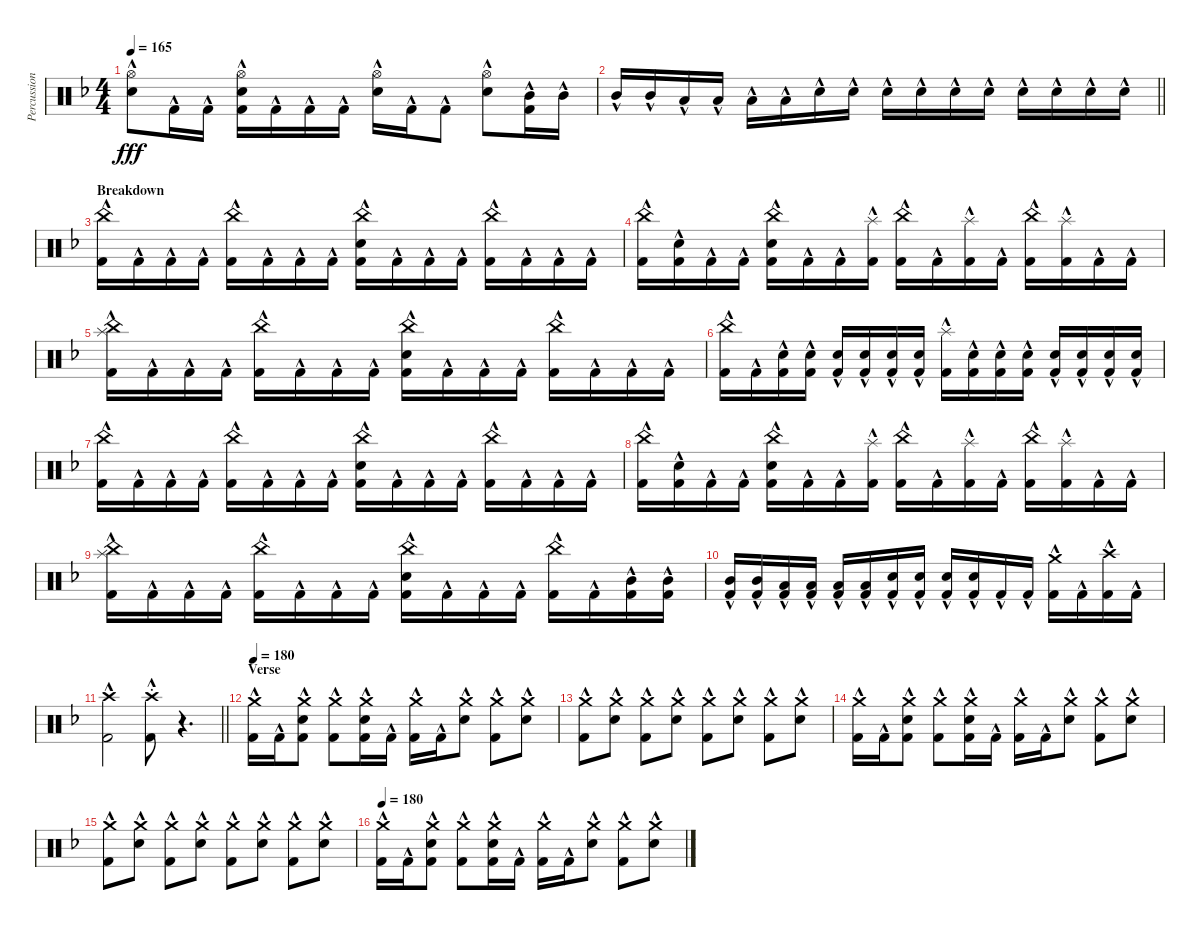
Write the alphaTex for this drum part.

\track ("Percussion" "Percussion") {instrument percussion}
\staff {score}
\articulation defaults
\ts (4 4)
\tempo 165
\clef neutral
\ks f
("Hi-Hat (open)"{hac} "Electric Snare (hit)"{hac}).8{dy fff} "Kick (hit) 2"{hac}.16 "Kick (hit) 2"{hac}.16 ("Hi-Hat (open)"{hac} "Electric Snare (hit)"{hac} "Kick (hit) 2"{hac}).16 "Kick (hit) 2"{hac}.16 "Kick (hit) 2"{hac}.16 "Kick (hit) 2"{hac}.16 ("Hi-Hat (open)"{hac} "Electric Snare (hit)"{hac}).16 "Kick (hit) 2"{hac}.16 "Kick (hit) 2"{hac}.8 ("Hi-Hat (open)"{hac} "Electric Snare (hit)"{hac}).8 ("Mid Tom (hit)"{hac} "Kick (hit) 2"{hac}).16 "Mid Tom (hit)"{hac}.16 |
\barLineRight lightlight "Mid Tom (hit)"{hac}.16 "Mid Tom (hit)"{hac}.16 "Low Tom (hit)"{hac}.16 "Low Tom (hit)"{hac}.16 "Low Tom (hit)"{hac}.16 "Low Tom (hit)"{hac}.16 "Electric Snare (hit)"{hac}.16 "Electric Snare (hit)"{hac}.16 "Electric Snare (hit)"{hac}.16 "Electric Snare (hit)"{hac}.16 "Electric Snare (hit)"{hac}.16 "Electric Snare (hit)"{hac}.16 "Electric Snare (hit)"{hac}.16 "Electric Snare (hit)"{hac}.16 "Electric Snare (hit)"{hac}.16 "Electric Snare (hit)"{hac}.16
|
\section ("" "Breakdown")
("China (hit)"{hac} "Kick (hit) 2"{hac}).16 "Kick (hit) 2"{hac}.16 "Kick (hit) 2"{hac}.16 "Kick (hit) 2"{hac}.16 ("China (hit)"{hac} "Kick (hit) 2"{hac}).16 "Kick (hit) 2"{hac}.16 "Kick (hit) 2"{hac}.16 "Kick (hit) 2"{hac}.16 ("China (hit)"{hac} "Electric Snare (hit)"{hac} "Kick (hit) 2"{hac}).16 "Kick (hit) 2"{hac}.16 "Kick (hit) 2"{hac}.16 "Kick (hit) 2"{hac}.16 ("China (hit)"{hac} "Kick (hit) 2"{hac}).16 "Kick (hit) 2"{hac}.16 "Kick (hit) 2"{hac}.16 "Kick (hit) 2"{hac}.16 |
("China (hit)"{hac} "Kick (hit) 2"{hac}).16 ("Electric Snare (hit)"{hac} "Kick (hit) 2"{hac}).16 "Kick (hit) 2"{hac}.16 "Kick (hit) 2"{hac}.16 ("China (hit)"{hac} "Electric Snare (hit)"{hac} "Kick (hit) 2"{hac}).16 "Kick (hit) 2"{hac}.16 "Kick (hit) 2"{hac}.16 ("Splash (hit)"{hac} "Kick (hit) 2"{hac}).16 ("China (hit)"{hac} "Kick (hit) 2"{hac}).16 "Kick (hit) 2"{hac}.16 ("Splash (hit)"{hac} "Kick (hit) 2"{hac}).16 "Kick (hit) 2"{hac}.16 ("China (hit)"{hac} "Kick (hit) 2"{hac}).16 ("Splash (hit)"{hac} "Kick (hit) 2"{hac}).16 "Kick (hit) 2"{hac}.16 "Kick (hit) 2"{hac}.16 |
("China (hit)"{hac} "Splash (hit)"{hac} "Kick (hit) 2"{hac}).16 "Kick (hit) 2"{hac}.16 "Kick (hit) 2"{hac}.16 "Kick (hit) 2"{hac}.16 ("China (hit)"{hac} "Kick (hit) 2"{hac}).16 "Kick (hit) 2"{hac}.16 "Kick (hit) 2"{hac}.16 "Kick (hit) 2"{hac}.16 ("China (hit)"{hac} "Electric Snare (hit)"{hac} "Kick (hit) 2"{hac}).16 "Kick (hit) 2"{hac}.16 "Kick (hit) 2"{hac}.16 "Kick (hit) 2"{hac}.16 ("China (hit)"{hac} "Kick (hit) 2"{hac}).16 "Kick (hit) 2"{hac}.16 "Kick (hit) 2"{hac}.16 "Kick (hit) 2"{hac}.16 |
("China (hit)"{hac} "Kick (hit) 2"{hac}).16 "Kick (hit) 2"{hac}.16 ("Electric Snare (hit)"{hac} "Kick (hit) 2"{hac}).16 ("Electric Snare (hit)"{hac} "Kick (hit) 2"{hac}).16 ("Electric Snare (hit)"{hac} "Kick (hit) 2"{hac}).16 ("Electric Snare (hit)"{hac} "Kick (hit) 2"{hac}).16 ("Electric Snare (hit)"{hac} "Kick (hit) 2"{hac}).16 ("Electric Snare (hit)"{hac} "Kick (hit) 2"{hac}).16 ("Splash (hit)"{hac} "Kick (hit) 2"{hac}).16 ("Electric Snare (hit)"{hac} "Kick (hit) 2"{hac}).16 ("Electric Snare (hit)"{hac} "Kick (hit) 2"{hac}).16 ("Electric Snare (hit)"{hac} "Kick (hit) 2"{hac}).16 ("Electric Snare (hit)"{hac} "Kick (hit) 2"{hac}).16 ("Electric Snare (hit)"{hac} "Kick (hit) 2"{hac}).16 ("Electric Snare (hit)"{hac} "Kick (hit) 2"{hac}).16 ("Electric Snare (hit)"{hac} "Kick (hit) 2"{hac}).16 |
("China (hit)"{hac} "Kick (hit) 2"{hac}).16 "Kick (hit) 2"{hac}.16 "Kick (hit) 2"{hac}.16 "Kick (hit) 2"{hac}.16 ("China (hit)"{hac} "Kick (hit) 2"{hac}).16 "Kick (hit) 2"{hac}.16 "Kick (hit) 2"{hac}.16 "Kick (hit) 2"{hac}.16 ("China (hit)"{hac} "Electric Snare (hit)"{hac} "Kick (hit) 2"{hac}).16 "Kick (hit) 2"{hac}.16 "Kick (hit) 2"{hac}.16 "Kick (hit) 2"{hac}.16 ("China (hit)"{hac} "Kick (hit) 2"{hac}).16 "Kick (hit) 2"{hac}.16 "Kick (hit) 2"{hac}.16 "Kick (hit) 2"{hac}.16 |
("China (hit)"{hac} "Kick (hit) 2"{hac}).16 ("Electric Snare (hit)"{hac} "Kick (hit) 2"{hac}).16 "Kick (hit) 2"{hac}.16 "Kick (hit) 2"{hac}.16 ("China (hit)"{hac} "Electric Snare (hit)"{hac} "Kick (hit) 2"{hac}).16 "Kick (hit) 2"{hac}.16 "Kick (hit) 2"{hac}.16 ("Splash (hit)"{hac} "Kick (hit) 2"{hac}).16 ("China (hit)"{hac} "Kick (hit) 2"{hac}).16 "Kick (hit) 2"{hac}.16 ("Splash (hit)"{hac} "Kick (hit) 2"{hac}).16 "Kick (hit) 2"{hac}.16 ("China (hit)"{hac} "Kick (hit) 2"{hac}).16 ("Splash (hit)"{hac} "Kick (hit) 2"{hac}).16 "Kick (hit) 2"{hac}.16 "Kick (hit) 2"{hac}.16 |
("China (hit)"{hac} "Splash (hit)"{hac} "Kick (hit) 2"{hac}).16 "Kick (hit) 2"{hac}.16 "Kick (hit) 2"{hac}.16 "Kick (hit) 2"{hac}.16 ("China (hit)"{hac} "Kick (hit) 2"{hac}).16 "Kick (hit) 2"{hac}.16 "Kick (hit) 2"{hac}.16 "Kick (hit) 2"{hac}.16 ("China (hit)"{hac} "Electric Snare (hit)"{hac} "Kick (hit) 2"{hac}).16 "Kick (hit) 2"{hac}.16 "Kick (hit) 2"{hac}.16 "Kick (hit) 2"{hac}.16 ("China (hit)"{hac} "Kick (hit) 2"{hac}).16 "Kick (hit) 2"{hac}.16 ("Mid Tom (hit)"{hac} "Kick (hit) 2"{hac}).16 ("Mid Tom (hit)"{hac} "Kick (hit) 2"{hac}).16 |
("Mid Tom (hit)"{hac} "Kick (hit) 2"{hac}).16 ("Mid Tom (hit)"{hac} "Kick (hit) 2"{hac}).16 ("Low Tom (hit)"{hac} "Kick (hit) 2"{hac}).16 ("Low Tom (hit)"{hac} "Kick (hit) 2"{hac}).16 ("Low Tom (hit)"{hac} "Kick (hit) 2"{hac}).16 ("Low Tom (hit)"{hac} "Kick (hit) 2"{hac}).16 ("Electric Snare (hit)"{hac} "Kick (hit) 2"{hac}).16 ("Electric Snare (hit)"{hac} "Kick (hit) 2"{hac}).16 ("Electric Snare (hit)"{hac} "Kick (hit) 2"{hac}).16 ("Electric Snare (hit)"{hac} "Kick (hit) 2"{hac}).16 "Kick (hit) 2"{hac}.16 "Kick (hit) 2"{hac}.16 ("Crash medium (hit)"{hac} "Kick (hit) 2"{hac}).16 "Kick (hit) 2"{hac}.16 ("Crash high (hit)"{hac} "Kick (hit) 2"{hac}).16 "Kick (hit) 2"{hac}.16 |
\barLineRight lightlight
("Crash high (hit)"{hac} "Kick (hit) 2"{hac}).2 ("Crash high (hit)"{hac st} "Kick (hit) 2"{hac}).8 r.4{d volume 0} |
\section ("" "Verse")
\tempo 180
("Crash medium (hit)"{hac} "Kick (hit) 2"{hac}).16{volume 14} "Kick (hit) 2"{hac}.16 ("Crash medium (hit)"{hac} "Electric Snare (hit)"{hac} "Kick (hit) 2"{hac}).8 ("Crash medium (hit)"{hac} "Kick (hit) 2"{hac}).8 ("Crash medium (hit)"{hac} "Electric Snare (hit)"{hac} "Kick (hit) 2"{hac}).16 "Kick (hit) 2"{hac}.16 ("Crash medium (hit)"{hac} "Kick (hit) 2"{hac}).16 "Kick (hit) 2"{hac}.16 ("Crash medium (hit)"{hac} "Electric Snare (hit)"{hac}).8 ("Crash medium (hit)"{hac} "Kick (hit) 2"{hac}).8 ("Crash medium (hit)"{hac} "Electric Snare (hit)"{hac}).8 |
("Crash medium (hit)"{hac} "Kick (hit) 2"{hac}).8 ("Crash medium (hit)"{hac} "Electric Snare (hit)"{hac}).8 ("Crash medium (hit)"{hac} "Kick (hit) 2"{hac}).8 ("Crash medium (hit)"{hac} "Electric Snare (hit)"{hac}).8 ("Crash medium (hit)"{hac} "Kick (hit) 2"{hac}).8 ("Crash medium (hit)"{hac} "Electric Snare (hit)"{hac}).8 ("Crash medium (hit)"{hac} "Kick (hit) 2"{hac}).8 ("Crash medium (hit)"{hac} "Electric Snare (hit)"{hac}).8 |
("Crash medium (hit)"{hac} "Kick (hit) 2"{hac}).16 "Kick (hit) 2"{hac}.16 ("Crash medium (hit)"{hac} "Electric Snare (hit)"{hac} "Kick (hit) 2"{hac}).8 ("Crash medium (hit)"{hac} "Kick (hit) 2"{hac}).8 ("Crash medium (hit)"{hac} "Electric Snare (hit)"{hac} "Kick (hit) 2"{hac}).16 "Kick (hit) 2"{hac}.16 ("Crash medium (hit)"{hac} "Kick (hit) 2"{hac}).16 "Kick (hit) 2"{hac}.16 ("Crash medium (hit)"{hac} "Electric Snare (hit)"{hac}).8 ("Crash medium (hit)"{hac} "Kick (hit) 2"{hac}).8 ("Crash medium (hit)"{hac} "Electric Snare (hit)"{hac}).8 |
("Crash medium (hit)"{hac} "Kick (hit) 2"{hac}).8 ("Crash medium (hit)"{hac} "Electric Snare (hit)"{hac}).8 ("Crash medium (hit)"{hac} "Kick (hit) 2"{hac}).8 ("Crash medium (hit)"{hac} "Electric Snare (hit)"{hac}).8 ("Crash medium (hit)"{hac} "Kick (hit) 2"{hac}).8 ("Crash medium (hit)"{hac} "Electric Snare (hit)"{hac}).8 ("Crash medium (hit)"{hac} "Kick (hit) 2"{hac}).8 ("Crash medium (hit)"{hac} "Electric Snare (hit)"{hac}).8 |
\tempo 180
("Crash medium (hit)"{hac} "Kick (hit) 2"{hac}).16{volume 14} "Kick (hit) 2"{hac}.16 ("Crash medium (hit)"{hac} "Electric Snare (hit)"{hac} "Kick (hit) 2"{hac}).8 ("Crash medium (hit)"{hac} "Kick (hit) 2"{hac}).8 ("Crash medium (hit)"{hac} "Electric Snare (hit)"{hac} "Kick (hit) 2"{hac}).16 "Kick (hit) 2"{hac}.16 ("Crash medium (hit)"{hac} "Kick (hit) 2"{hac}).16 "Kick (hit) 2"{hac}.16 ("Crash medium (hit)"{hac} "Electric Snare (hit)"{hac}).8 ("Crash medium (hit)"{hac} "Kick (hit) 2"{hac}).8 ("Crash medium (hit)"{hac} "Electric Snare (hit)"{hac}).8
